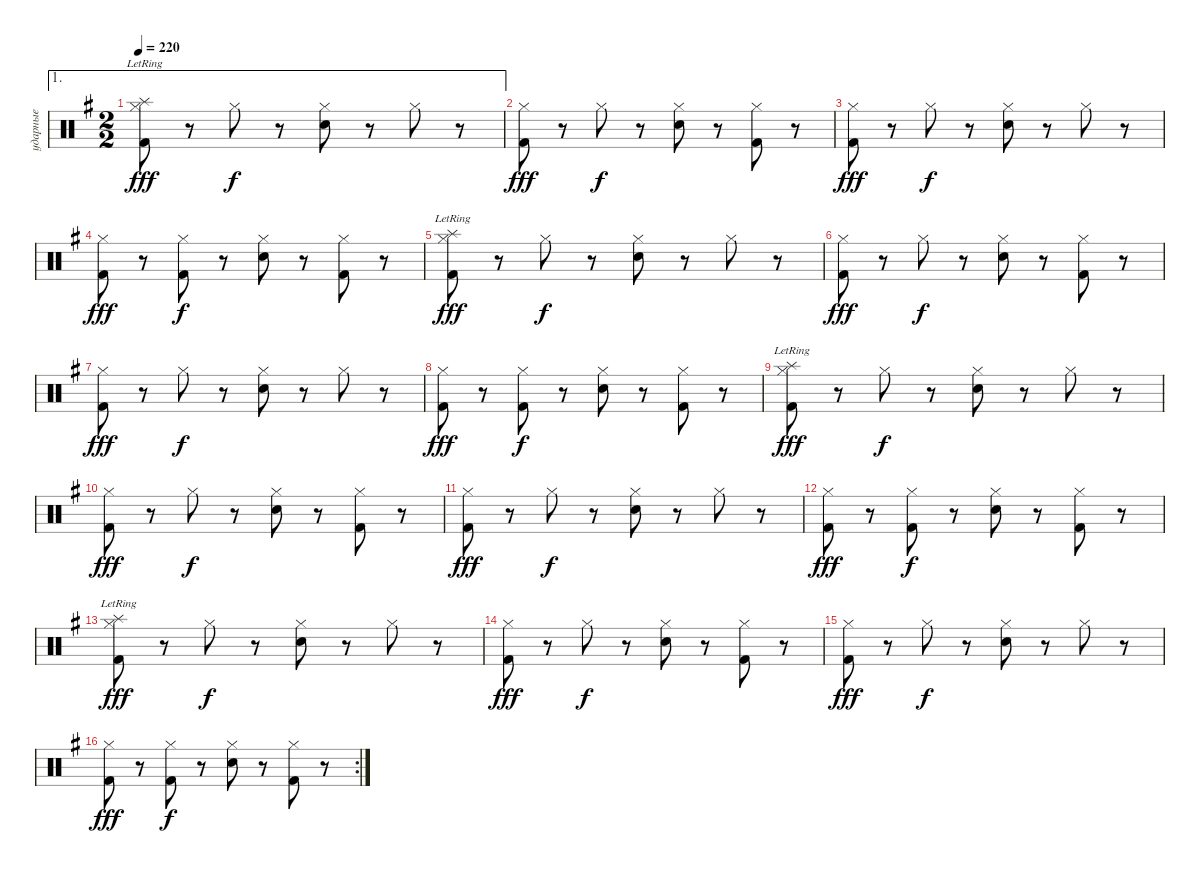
\track ("ударные" "ударные") {instrument percussion}
\staff {score}
\articulation defaults
\ae 1
\ts (2 2)
\section ("" "")
\tempo 220
\clef neutral
\ks eminor
("Hi-Hat (closed)" "Splash (hit)"{lr} "Kick (hit) 2").8{dy fff} r.8 "Hi-Hat (closed)".8{dy f} r.8 ("Hi-Hat (closed)" "Snare (hit) 2").8 r.8 "Hi-Hat (closed)".8 r.8 |
("Hi-Hat (closed)" "Kick (hit) 2").8{dy fff} r.8 "Hi-Hat (closed)".8{dy f} r.8 ("Hi-Hat (closed)" "Snare (hit) 2").8 r.8 ("Hi-Hat (closed)" "Kick (hit) 2").8 r.8 |
("Hi-Hat (closed)" "Kick (hit) 2").8{dy fff} r.8 "Hi-Hat (closed)".8{dy f} r.8 ("Hi-Hat (closed)" "Snare (hit) 2").8 r.8 "Hi-Hat (closed)".8 r.8 |
("Hi-Hat (closed)" "Kick (hit) 2").8{dy fff} r.8 ("Hi-Hat (closed)" "Kick (hit) 2").8{dy f} r.8 ("Hi-Hat (closed)" "Snare (hit) 2").8 r.8 ("Hi-Hat (closed)" "Kick (hit) 2").8 r.8 |
("Hi-Hat (closed)" "Splash (hit)"{lr} "Kick (hit) 2").8{dy fff} r.8 "Hi-Hat (closed)".8{dy f} r.8 ("Hi-Hat (closed)" "Snare (hit) 2").8 r.8 "Hi-Hat (closed)".8 r.8 |
("Hi-Hat (closed)" "Kick (hit) 2").8{dy fff} r.8 "Hi-Hat (closed)".8{dy f} r.8 ("Hi-Hat (closed)" "Snare (hit) 2").8 r.8 ("Hi-Hat (closed)" "Kick (hit) 2").8 r.8 |
("Hi-Hat (closed)" "Kick (hit) 2").8{dy fff} r.8 "Hi-Hat (closed)".8{dy f} r.8 ("Hi-Hat (closed)" "Snare (hit) 2").8 r.8 "Hi-Hat (closed)".8 r.8 |
("Hi-Hat (closed)" "Kick (hit) 2").8{dy fff} r.8 ("Hi-Hat (closed)" "Kick (hit) 2").8{dy f} r.8 ("Hi-Hat (closed)" "Snare (hit) 2").8 r.8 ("Hi-Hat (closed)" "Kick (hit) 2").8 r.8 |
("Hi-Hat (closed)" "Splash (hit)"{lr} "Kick (hit) 2").8{dy fff} r.8 "Hi-Hat (closed)".8{dy f} r.8 ("Hi-Hat (closed)" "Snare (hit) 2").8 r.8 "Hi-Hat (closed)".8 r.8 |
("Hi-Hat (closed)" "Kick (hit) 2").8{dy fff} r.8 "Hi-Hat (closed)".8{dy f} r.8 ("Hi-Hat (closed)" "Snare (hit) 2").8 r.8 ("Hi-Hat (closed)" "Kick (hit) 2").8 r.8 |
("Hi-Hat (closed)" "Kick (hit) 2").8{dy fff} r.8 "Hi-Hat (closed)".8{dy f} r.8 ("Hi-Hat (closed)" "Snare (hit) 2").8 r.8 "Hi-Hat (closed)".8 r.8 |
("Hi-Hat (closed)" "Kick (hit) 2").8{dy fff} r.8 ("Hi-Hat (closed)" "Kick (hit) 2").8{dy f} r.8 ("Hi-Hat (closed)" "Snare (hit) 2").8 r.8 ("Hi-Hat (closed)" "Kick (hit) 2").8 r.8 |
("Hi-Hat (closed)" "Splash (hit)"{lr} "Kick (hit) 2").8{dy fff} r.8 "Hi-Hat (closed)".8{dy f} r.8 ("Hi-Hat (closed)" "Snare (hit) 2").8 r.8 "Hi-Hat (closed)".8 r.8 |
("Hi-Hat (closed)" "Kick (hit) 2").8{dy fff} r.8 "Hi-Hat (closed)".8{dy f} r.8 ("Hi-Hat (closed)" "Snare (hit) 2").8 r.8 ("Hi-Hat (closed)" "Kick (hit) 2").8 r.8 |
("Hi-Hat (closed)" "Kick (hit) 2").8{dy fff} r.8 "Hi-Hat (closed)".8{dy f} r.8 ("Hi-Hat (closed)" "Snare (hit) 2").8 r.8 "Hi-Hat (closed)".8 r.8 |
\rc 2
("Hi-Hat (closed)" "Kick (hit) 2").8{dy fff} r.8 ("Hi-Hat (closed)" "Kick (hit) 2").8{dy f} r.8 ("Hi-Hat (closed)" "Snare (hit) 2").8 r.8 ("Hi-Hat (closed)" "Kick (hit) 2").8 r.8
